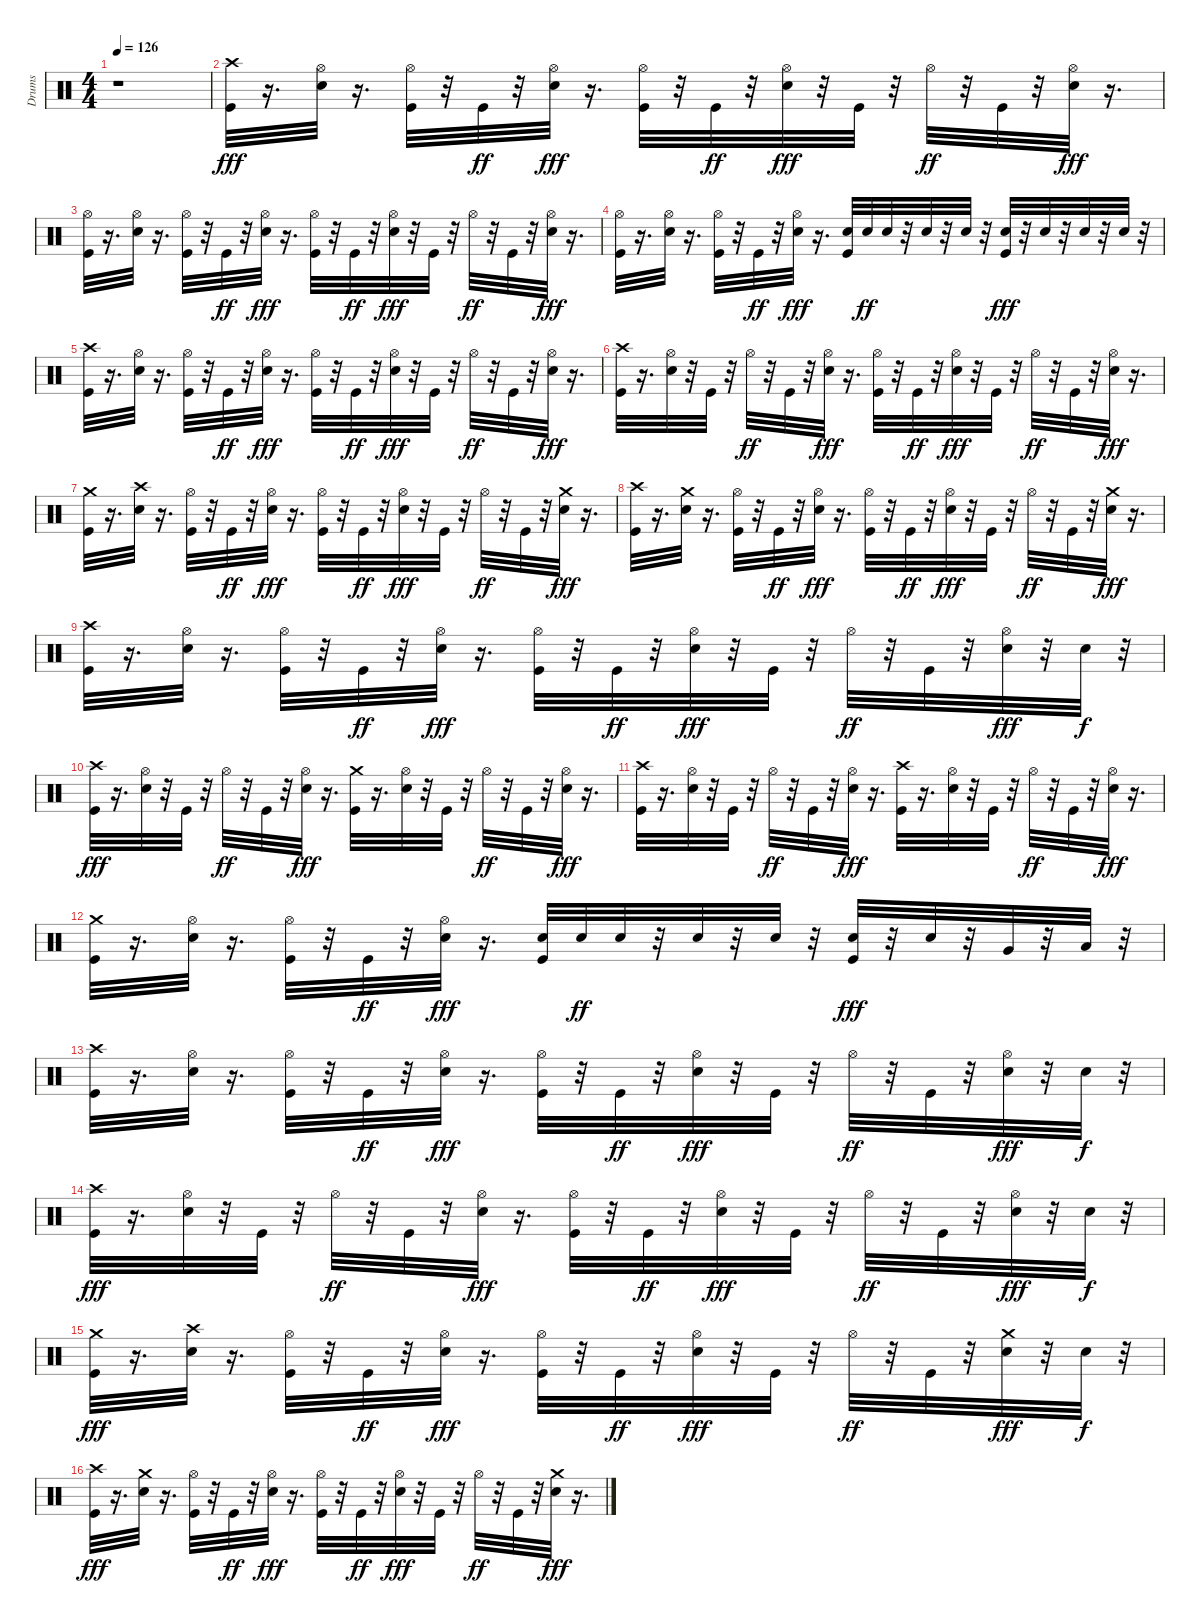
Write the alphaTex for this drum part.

\track ("Drums" "Drums") {instrument percussion}
\staff {score}
\articulation defaults
\ts (4 4)
\tempo 126
\clef neutral
\ks c
r.1{dy fff} |
("Crash high (hit)" "Kick (hit)").32 r.16{d} ("Hi-Hat (open)" "Electric Snare (hit)").32 r.16{d} ("Hi-Hat (open)" "Kick (hit)").32 r.32 "Kick (hit)".32{dy ff} r.32 ("Hi-Hat (open)" "Electric Snare (hit)").32{dy fff} r.16{d} ("Hi-Hat (open)" "Kick (hit)").32 r.32 "Kick (hit)".32{dy ff} r.32 ("Hi-Hat (open)" "Electric Snare (hit)").32{dy fff} r.32 "Kick (hit)".32 r.32 "Hi-Hat (open)".32{dy ff} r.32 "Kick (hit)".32 r.32 ("Hi-Hat (open)" "Electric Snare (hit)").32{dy fff} r.16{d} |
("Hi-Hat (open)" "Kick (hit)").32 r.16{d} ("Hi-Hat (open)" "Electric Snare (hit)").32 r.16{d} ("Hi-Hat (open)" "Kick (hit)").32 r.32 "Kick (hit)".32{dy ff} r.32 ("Hi-Hat (open)" "Electric Snare (hit)").32{dy fff} r.16{d} ("Hi-Hat (open)" "Kick (hit)").32 r.32 "Kick (hit)".32{dy ff} r.32 ("Hi-Hat (open)" "Electric Snare (hit)").32{dy fff} r.32 "Kick (hit)".32 r.32 "Hi-Hat (open)".32{dy ff} r.32 "Kick (hit)".32 r.32 ("Hi-Hat (open)" "Electric Snare (hit)").32{dy fff} r.16{d} |
("Hi-Hat (open)" "Kick (hit)").32 r.16{d} ("Hi-Hat (open)" "Electric Snare (hit)").32 r.16{d} ("Hi-Hat (open)" "Kick (hit)").32 r.32 "Kick (hit)".32{dy ff} r.32 ("Hi-Hat (open)" "Electric Snare (hit)").32{dy fff} r.16{d} ("Electric Snare (hit)" "Kick (hit)").32 "Electric Snare (hit)".32{dy ff} "Electric Snare (hit)".32 r.32 "Electric Snare (hit)".32 r.32 "Electric Snare (hit)".32 r.32 ("Electric Snare (hit)" "Kick (hit)").32{dy fff} r.32 "Electric Snare (hit)".32 r.32 "Electric Snare (hit)".32 r.32 "Electric Snare (hit)".32 r.32 |
("Crash high (hit)" "Kick (hit)").32 r.16{d} ("Hi-Hat (open)" "Electric Snare (hit)").32 r.16{d} ("Hi-Hat (open)" "Kick (hit)").32 r.32 "Kick (hit)".32{dy ff} r.32 ("Hi-Hat (open)" "Electric Snare (hit)").32{dy fff} r.16{d} ("Hi-Hat (open)" "Kick (hit)").32 r.32 "Kick (hit)".32{dy ff} r.32 ("Hi-Hat (open)" "Electric Snare (hit)").32{dy fff} r.32 "Kick (hit)".32 r.32 "Hi-Hat (open)".32{dy ff} r.32 "Kick (hit)".32 r.32 ("Hi-Hat (open)" "Electric Snare (hit)").32{dy fff} r.16{d} |
("Kick (hit)" "Crash high (hit)").32 r.16{d} ("Hi-Hat (open)" "Electric Snare (hit)").32 r.32 "Kick (hit)".32 r.32 "Hi-Hat (open)".32{dy ff} r.32 "Kick (hit)".32 r.32 ("Hi-Hat (open)" "Electric Snare (hit)").32{dy fff} r.16{d} ("Hi-Hat (open)" "Kick (hit)").32 r.32 "Kick (hit)".32{dy ff} r.32 ("Hi-Hat (open)" "Electric Snare (hit)").32{dy fff} r.32 "Kick (hit)".32 r.32 "Hi-Hat (open)".32{dy ff} r.32 "Kick (hit)".32 r.32 ("Hi-Hat (open)" "Electric Snare (hit)").32{dy fff} r.16{d} |
("Kick (hit)" "Crash medium (hit)").32 r.16{d} ("Electric Snare (hit)" "Crash high (hit)").32 r.16{d} ("Hi-Hat (open)" "Kick (hit)").32 r.32 "Kick (hit)".32{dy ff} r.32 ("Hi-Hat (open)" "Electric Snare (hit)").32{dy fff} r.16{d} ("Hi-Hat (open)" "Kick (hit)").32 r.32 "Kick (hit)".32{dy ff} r.32 ("Hi-Hat (open)" "Electric Snare (hit)").32{dy fff} r.32 "Kick (hit)".32 r.32 "Hi-Hat (open)".32{dy ff} r.32 "Kick (hit)".32 r.32 ("Electric Snare (hit)" "Crash medium (hit)").32{dy fff} r.16{d} |
("Crash high (hit)" "Kick (hit)").32 r.16{d} ("Crash medium (hit)" "Electric Snare (hit)").32 r.16{d} ("Hi-Hat (open)" "Kick (hit)").32 r.32 "Kick (hit)".32{dy ff} r.32 ("Hi-Hat (open)" "Electric Snare (hit)").32{dy fff} r.16{d} ("Hi-Hat (open)" "Kick (hit)").32 r.32 "Kick (hit)".32{dy ff} r.32 ("Hi-Hat (open)" "Electric Snare (hit)").32{dy fff} r.32 "Kick (hit)".32 r.32 "Hi-Hat (open)".32{dy ff} r.32 "Kick (hit)".32 r.32 ("Electric Snare (hit)" "Crash medium (hit)").32{dy fff} r.16{d} |
("Kick (hit)" "Crash high (hit)").32 r.16{d} ("Hi-Hat (open)" "Electric Snare (hit)").32 r.16{d} ("Hi-Hat (open)" "Kick (hit)").32 r.32 "Kick (hit)".32{dy ff} r.32 ("Hi-Hat (open)" "Electric Snare (hit)").32{dy fff} r.16{d} ("Hi-Hat (open)" "Kick (hit)").32 r.32 "Kick (hit)".32{dy ff} r.32 ("Hi-Hat (open)" "Electric Snare (hit)").32{dy fff} r.32 "Kick (hit)".32 r.32 "Hi-Hat (open)".32{dy ff} r.32 "Kick (hit)".32 r.32 ("Hi-Hat (open)" "Electric Snare (hit)").32{dy fff} r.32 "Electric Snare (hit)".32{dy f} r.32 |
("Kick (hit)" "Crash high (hit)").32{dy fff} r.16{d} ("Hi-Hat (open)" "Electric Snare (hit)").32 r.32 "Kick (hit)".32 r.32 "Hi-Hat (open)".32{dy ff} r.32 "Kick (hit)".32 r.32 ("Hi-Hat (open)" "Electric Snare (hit)").32{dy fff} r.16{d} ("Kick (hit)" "Crash medium (hit)").32 r.16{d} ("Hi-Hat (open)" "Electric Snare (hit)").32 r.32 "Kick (hit)".32 r.32 "Hi-Hat (open)".32{dy ff} r.32 "Kick (hit)".32 r.32 ("Hi-Hat (open)" "Electric Snare (hit)").32{dy fff} r.16{d} |
("Crash high (hit)" "Kick (hit)").32 r.16{d} ("Hi-Hat (open)" "Electric Snare (hit)").32 r.32 "Kick (hit)".32 r.32 "Hi-Hat (open)".32{dy ff} r.32 "Kick (hit)".32 r.32 ("Hi-Hat (open)" "Electric Snare (hit)").32{dy fff} r.16{d} ("Crash high (hit)" "Kick (hit)").32 r.16{d} ("Hi-Hat (open)" "Electric Snare (hit)").32 r.32 "Kick (hit)".32 r.32 "Hi-Hat (open)".32{dy ff} r.32 "Kick (hit)".32 r.32 ("Hi-Hat (open)" "Electric Snare (hit)").32{dy fff} r.16{d} |
("Kick (hit)" "Crash medium (hit)").32 r.16{d} ("Hi-Hat (open)" "Electric Snare (hit)").32 r.16{d} ("Hi-Hat (open)" "Kick (hit)").32 r.32 "Kick (hit)".32{dy ff} r.32 ("Hi-Hat (open)" "Electric Snare (hit)").32{dy fff} r.16{d} ("Electric Snare (hit)" "Kick (hit)").32 "Electric Snare (hit)".32{dy ff} "Electric Snare (hit)".32 r.32 "Electric Snare (hit)".32 r.32 "Electric Snare (hit)".32 r.32 ("Electric Snare (hit)" "Kick (hit)").32{dy fff} r.32 "Electric Snare (hit)".32 r.32 "Very Low Tom (hit)".32 r.32 "Low Floor Tom (hit)".32 r.32 |
("Crash high (hit)" "Kick (hit)").32 r.16{d} ("Hi-Hat (open)" "Electric Snare (hit)").32 r.16{d} ("Hi-Hat (open)" "Kick (hit)").32 r.32 "Kick (hit)".32{dy ff} r.32 ("Hi-Hat (open)" "Electric Snare (hit)").32{dy fff} r.16{d} ("Hi-Hat (open)" "Kick (hit)").32 r.32 "Kick (hit)".32{dy ff} r.32 ("Hi-Hat (open)" "Electric Snare (hit)").32{dy fff} r.32 "Kick (hit)".32 r.32 "Hi-Hat (open)".32{dy ff} r.32 "Kick (hit)".32 r.32 ("Hi-Hat (open)" "Electric Snare (hit)").32{dy fff} r.32 "Electric Snare (hit)".32{dy f} r.32 |
("Kick (hit)" "Crash high (hit)").32{dy fff} r.16{d} ("Hi-Hat (open)" "Electric Snare (hit)").32 r.32 "Kick (hit)".32 r.32 "Hi-Hat (open)".32{dy ff} r.32 "Kick (hit)".32 r.32 ("Hi-Hat (open)" "Electric Snare (hit)").32{dy fff} r.16{d} ("Hi-Hat (open)" "Kick (hit)").32 r.32 "Kick (hit)".32{dy ff} r.32 ("Hi-Hat (open)" "Electric Snare (hit)").32{dy fff} r.32 "Kick (hit)".32 r.32 "Hi-Hat (open)".32{dy ff} r.32 "Kick (hit)".32 r.32 ("Hi-Hat (open)" "Electric Snare (hit)").32{dy fff} r.32 "Electric Snare (hit)".32{dy f} r.32 |
("Kick (hit)" "Crash medium (hit)").32{dy fff} r.16{d} ("Electric Snare (hit)" "Crash high (hit)").32 r.16{d} ("Hi-Hat (open)" "Kick (hit)").32 r.32 "Kick (hit)".32{dy ff} r.32 ("Hi-Hat (open)" "Electric Snare (hit)").32{dy fff} r.16{d} ("Hi-Hat (open)" "Kick (hit)").32 r.32 "Kick (hit)".32{dy ff} r.32 ("Hi-Hat (open)" "Electric Snare (hit)").32{dy fff} r.32 "Kick (hit)".32 r.32 "Hi-Hat (open)".32{dy ff} r.32 "Kick (hit)".32 r.32 ("Electric Snare (hit)" "Crash medium (hit)").32{dy fff} r.32 "Electric Snare (hit)".32{dy f} r.32 |
("Crash high (hit)" "Kick (hit)").32{dy fff} r.16{d} ("Crash medium (hit)" "Electric Snare (hit)").32 r.16{d} ("Hi-Hat (open)" "Kick (hit)").32 r.32 "Kick (hit)".32{dy ff} r.32 ("Hi-Hat (open)" "Electric Snare (hit)").32{dy fff} r.16{d} ("Hi-Hat (open)" "Kick (hit)").32 r.32 "Kick (hit)".32{dy ff} r.32 ("Hi-Hat (open)" "Electric Snare (hit)").32{dy fff} r.32 "Kick (hit)".32 r.32 "Hi-Hat (open)".32{dy ff} r.32 "Kick (hit)".32 r.32 ("Electric Snare (hit)" "Crash medium (hit)").32{dy fff} r.16{d}
